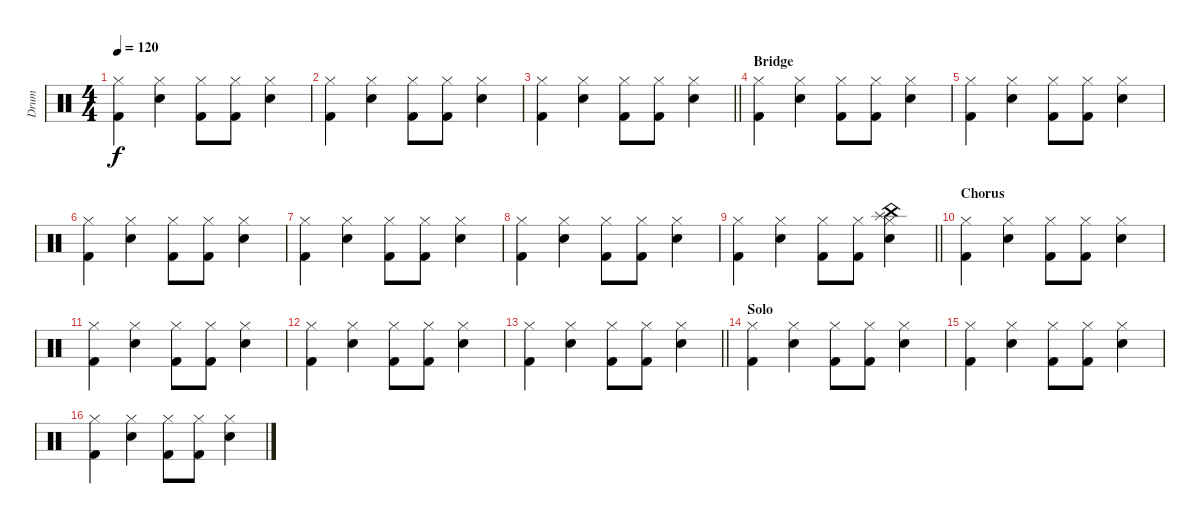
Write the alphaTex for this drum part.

\track ("Drum" "Drum") {instrument percussion}
\staff {score}
\articulation defaults
\ts (4 4)
\tempo 120
\clef neutral
\ks c
("Hi-Hat (closed)" "Kick (hit) 2").4{dy f} ("Snare (hit) 2" "Hi-Hat (closed)").4 ("Hi-Hat (closed)" "Kick (hit) 2").8 ("Hi-Hat (closed)" "Kick (hit) 2").8 ("Snare (hit) 2" "Hi-Hat (closed)").4 |
("Hi-Hat (closed)" "Kick (hit) 2").4 ("Snare (hit) 2" "Hi-Hat (closed)").4 ("Hi-Hat (closed)" "Kick (hit) 2").8 ("Hi-Hat (closed)" "Kick (hit) 2").8 ("Snare (hit) 2" "Hi-Hat (closed)").4 |
\barLineRight lightlight
("Hi-Hat (closed)" "Kick (hit) 2").4 ("Snare (hit) 2" "Hi-Hat (closed)").4 ("Hi-Hat (closed)" "Kick (hit) 2").8 ("Hi-Hat (closed)" "Kick (hit) 2").8 ("Snare (hit) 2" "Hi-Hat (closed)").4 |
\section ("" "Bridge")
("Hi-Hat (closed)" "Kick (hit) 2").4 ("Snare (hit) 2" "Hi-Hat (closed)").4 ("Hi-Hat (closed)" "Kick (hit) 2").8 ("Hi-Hat (closed)" "Kick (hit) 2").8 ("Snare (hit) 2" "Hi-Hat (closed)").4 |
("Hi-Hat (closed)" "Kick (hit) 2").4 ("Snare (hit) 2" "Hi-Hat (closed)").4 ("Hi-Hat (closed)" "Kick (hit) 2").8 ("Hi-Hat (closed)" "Kick (hit) 2").8 ("Snare (hit) 2" "Hi-Hat (closed)").4 |
("Hi-Hat (closed)" "Kick (hit) 2").4 ("Snare (hit) 2" "Hi-Hat (closed)").4 ("Hi-Hat (closed)" "Kick (hit) 2").8 ("Hi-Hat (closed)" "Kick (hit) 2").8 ("Snare (hit) 2" "Hi-Hat (closed)").4 |
("Hi-Hat (closed)" "Kick (hit) 2").4 ("Snare (hit) 2" "Hi-Hat (closed)").4 ("Hi-Hat (closed)" "Kick (hit) 2").8 ("Hi-Hat (closed)" "Kick (hit) 2").8 ("Snare (hit) 2" "Hi-Hat (closed)").4 |
("Hi-Hat (closed)" "Kick (hit) 2").4 ("Snare (hit) 2" "Hi-Hat (closed)").4 ("Hi-Hat (closed)" "Kick (hit) 2").8 ("Hi-Hat (closed)" "Kick (hit) 2").8 ("Snare (hit) 2" "Hi-Hat (closed)").4 |
\barLineRight lightlight
("Hi-Hat (closed)" "Kick (hit) 2").4 ("Snare (hit) 2" "Hi-Hat (closed)").4 ("Hi-Hat (closed)" "Kick (hit) 2").8 ("Hi-Hat (closed)" "Kick (hit) 2").8 ("Snare (hit) 2" "Hi-Hat (closed)" "Splash (hit)" "China (hit)").4 |
\section ("" "Chorus")
("Hi-Hat (closed)" "Kick (hit) 2").4 ("Snare (hit) 2" "Hi-Hat (closed)").4 ("Hi-Hat (closed)" "Kick (hit) 2").8 ("Hi-Hat (closed)" "Kick (hit) 2").8 ("Snare (hit) 2" "Hi-Hat (closed)").4 |
("Hi-Hat (closed)" "Kick (hit) 2").4 ("Snare (hit) 2" "Hi-Hat (closed)").4 ("Hi-Hat (closed)" "Kick (hit) 2").8 ("Hi-Hat (closed)" "Kick (hit) 2").8 ("Snare (hit) 2" "Hi-Hat (closed)").4 |
("Hi-Hat (closed)" "Kick (hit) 2").4 ("Snare (hit) 2" "Hi-Hat (closed)").4 ("Hi-Hat (closed)" "Kick (hit) 2").8 ("Hi-Hat (closed)" "Kick (hit) 2").8 ("Snare (hit) 2" "Hi-Hat (closed)").4 |
\barLineRight lightlight
("Hi-Hat (closed)" "Kick (hit) 2").4 ("Snare (hit) 2" "Hi-Hat (closed)").4 ("Hi-Hat (closed)" "Kick (hit) 2").8 ("Hi-Hat (closed)" "Kick (hit) 2").8 ("Snare (hit) 2" "Hi-Hat (closed)").4 |
\section ("" "Solo")
("Hi-Hat (closed)" "Kick (hit) 2").4 ("Snare (hit) 2" "Hi-Hat (closed)").4 ("Hi-Hat (closed)" "Kick (hit) 2").8 ("Hi-Hat (closed)" "Kick (hit) 2").8 ("Snare (hit) 2" "Hi-Hat (closed)").4 |
("Hi-Hat (closed)" "Kick (hit) 2").4 ("Snare (hit) 2" "Hi-Hat (closed)").4 ("Hi-Hat (closed)" "Kick (hit) 2").8 ("Hi-Hat (closed)" "Kick (hit) 2").8 ("Snare (hit) 2" "Hi-Hat (closed)").4 |
("Hi-Hat (closed)" "Kick (hit) 2").4 ("Snare (hit) 2" "Hi-Hat (closed)").4 ("Hi-Hat (closed)" "Kick (hit) 2").8 ("Hi-Hat (closed)" "Kick (hit) 2").8 ("Snare (hit) 2" "Hi-Hat (closed)").4
